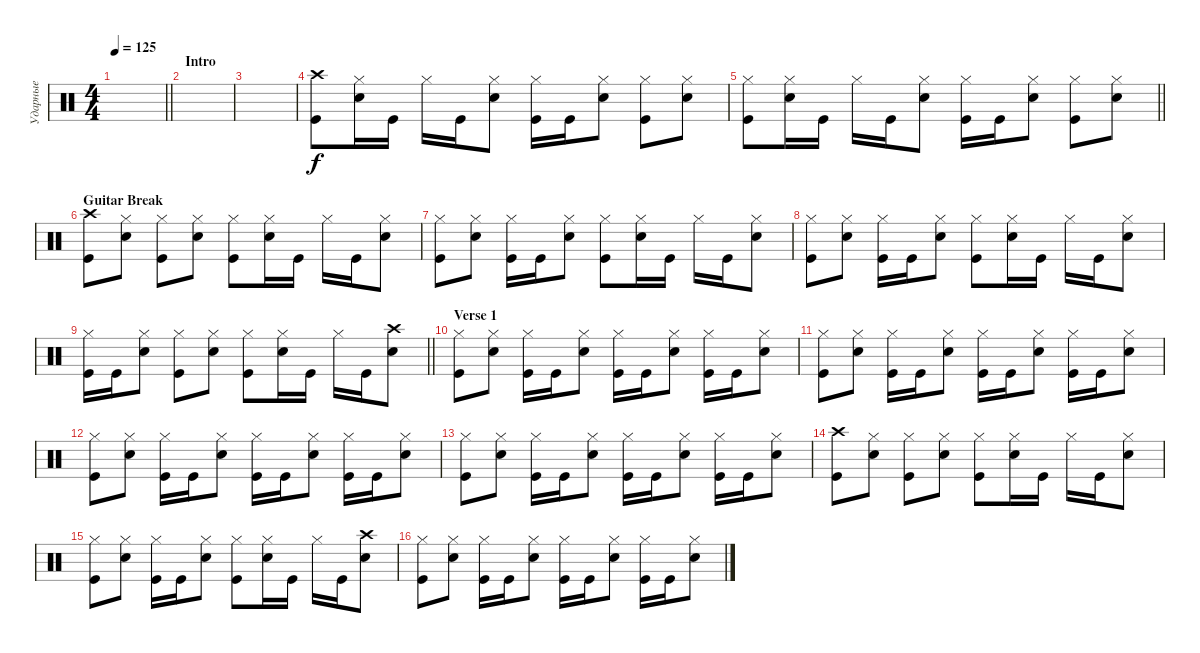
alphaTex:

\track ("Ударные" "Ударные") {instrument percussion}
\staff {score}
\articulation defaults
\ts (4 4)
\tempo 125
\clef neutral
\barLineRight lightlight
\ks aminor
|
\section ("" "Intro")
|
|
("Kick (hit)" "Crash high (hit)").8 ("Snare (hit) 2" "Hi-Hat (closed)").16 "Kick (hit)".16 "Hi-Hat (closed)".16 "Kick (hit)".16 ("Snare (hit) 2" "Hi-Hat (closed)").8 ("Kick (hit)" "Hi-Hat (closed)").16 "Kick (hit)".16 ("Snare (hit) 2" "Hi-Hat (closed)").8 ("Kick (hit)" "Hi-Hat (closed)").8 ("Snare (hit) 2" "Hi-Hat (closed)").8 |
\barLineRight lightlight
("Kick (hit)" "Hi-Hat (closed)").8 ("Snare (hit) 2" "Hi-Hat (closed)").16 "Kick (hit)".16 "Hi-Hat (closed)".16 "Kick (hit)".16 ("Snare (hit) 2" "Hi-Hat (closed)").8 ("Kick (hit)" "Hi-Hat (closed)").16 "Kick (hit)".16 ("Snare (hit) 2" "Hi-Hat (closed)").8 ("Kick (hit)" "Hi-Hat (closed)").8 ("Snare (hit) 2" "Hi-Hat (closed)").8 |
\section ("" "Guitar Break")
("Kick (hit)" "Crash high (hit)").8 ("Snare (hit) 2" "Hi-Hat (closed)").8 ("Kick (hit)" "Hi-Hat (closed)").8 ("Snare (hit) 2" "Hi-Hat (closed)").8 ("Kick (hit)" "Hi-Hat (closed)").8 ("Snare (hit) 2" "Hi-Hat (closed)").16 "Kick (hit)".16 "Hi-Hat (closed)".16 "Kick (hit)".16 ("Snare (hit) 2" "Hi-Hat (closed)").8 |
("Kick (hit)" "Hi-Hat (closed)").8 ("Snare (hit) 2" "Hi-Hat (closed)").8 ("Kick (hit)" "Hi-Hat (closed)").16 "Kick (hit)".16 ("Snare (hit) 2" "Hi-Hat (closed)").8 ("Kick (hit)" "Hi-Hat (closed)").8 ("Snare (hit) 2" "Hi-Hat (closed)").16 "Kick (hit)".16 "Hi-Hat (closed)".16 "Kick (hit)".16 ("Snare (hit) 2" "Hi-Hat (closed)").8 |
("Kick (hit)" "Hi-Hat (closed)").8 ("Snare (hit) 2" "Hi-Hat (closed)").8 ("Kick (hit)" "Hi-Hat (closed)").16 "Kick (hit)".16 ("Snare (hit) 2" "Hi-Hat (closed)").8 ("Kick (hit)" "Hi-Hat (closed)").8 ("Snare (hit) 2" "Hi-Hat (closed)").16 "Kick (hit)".16 "Hi-Hat (closed)".16 "Kick (hit)".16 ("Snare (hit) 2" "Hi-Hat (closed)").8 |
\barLineRight lightlight
("Kick (hit)" "Hi-Hat (closed)").16 "Kick (hit)".16 ("Snare (hit) 2" "Hi-Hat (closed)").8 ("Kick (hit)" "Hi-Hat (closed)").8 ("Snare (hit) 2" "Hi-Hat (closed)").8 ("Kick (hit)" "Hi-Hat (closed)").8 ("Snare (hit) 2" "Hi-Hat (closed)").16 "Kick (hit)".16 "Hi-Hat (closed)".16 "Kick (hit)".16 ("Snare (hit) 2" "Crash high (hit)").8 |
\section ("" "Verse 1")
("Kick (hit)" "Hi-Hat (closed)").8 ("Snare (hit) 2" "Hi-Hat (closed)").8 ("Kick (hit)" "Hi-Hat (closed)").16 "Kick (hit)".16 ("Snare (hit) 2" "Hi-Hat (closed)").8 ("Hi-Hat (closed)" "Kick (hit)").16 "Kick (hit)".16 ("Snare (hit) 2" "Hi-Hat (closed)").8 ("Kick (hit)" "Hi-Hat (closed)").16 "Kick (hit)".16 ("Snare (hit) 2" "Hi-Hat (closed)").8 |
("Kick (hit)" "Hi-Hat (closed)").8 ("Snare (hit) 2" "Hi-Hat (closed)").8 ("Kick (hit)" "Hi-Hat (closed)").16 "Kick (hit)".16 ("Snare (hit) 2" "Hi-Hat (closed)").8 ("Hi-Hat (closed)" "Kick (hit)").16 "Kick (hit)".16 ("Snare (hit) 2" "Hi-Hat (closed)").8 ("Kick (hit)" "Hi-Hat (closed)").16 "Kick (hit)".16 ("Snare (hit) 2" "Hi-Hat (closed)").8 |
("Kick (hit)" "Hi-Hat (closed)").8 ("Snare (hit) 2" "Hi-Hat (closed)").8 ("Kick (hit)" "Hi-Hat (closed)").16 "Kick (hit)".16 ("Snare (hit) 2" "Hi-Hat (closed)").8 ("Hi-Hat (closed)" "Kick (hit)").16 "Kick (hit)".16 ("Snare (hit) 2" "Hi-Hat (closed)").8 ("Kick (hit)" "Hi-Hat (closed)").16 "Kick (hit)".16 ("Snare (hit) 2" "Hi-Hat (closed)").8 |
("Kick (hit)" "Hi-Hat (closed)").8 ("Snare (hit) 2" "Hi-Hat (closed)").8 ("Kick (hit)" "Hi-Hat (closed)").16 "Kick (hit)".16 ("Snare (hit) 2" "Hi-Hat (closed)").8 ("Hi-Hat (closed)" "Kick (hit)").16 "Kick (hit)".16 ("Snare (hit) 2" "Hi-Hat (closed)").8 ("Kick (hit)" "Hi-Hat (closed)").16 "Kick (hit)".16 ("Snare (hit) 2" "Hi-Hat (closed)").8 |
("Kick (hit)" "Crash high (hit)").8 ("Snare (hit) 2" "Hi-Hat (closed)").8 ("Kick (hit)" "Hi-Hat (closed)").8 ("Snare (hit) 2" "Hi-Hat (closed)").8 ("Kick (hit)" "Hi-Hat (closed)").8 ("Snare (hit) 2" "Hi-Hat (closed)").16 "Kick (hit)".16 "Hi-Hat (closed)".16 "Kick (hit)".16 ("Snare (hit) 2" "Hi-Hat (closed)").8 |
("Kick (hit)" "Hi-Hat (closed)").8 ("Snare (hit) 2" "Hi-Hat (closed)").8 ("Kick (hit)" "Hi-Hat (closed)").16 "Kick (hit)".16 ("Snare (hit) 2" "Hi-Hat (closed)").8 ("Kick (hit)" "Hi-Hat (closed)").8 ("Snare (hit) 2" "Hi-Hat (closed)").16 "Kick (hit)".16 "Hi-Hat (closed)".16 "Kick (hit)".16 ("Snare (hit) 2" "Crash high (hit)").8 |
("Kick (hit)" "Hi-Hat (closed)").8 ("Snare (hit) 2" "Hi-Hat (closed)").8 ("Kick (hit)" "Hi-Hat (closed)").16 "Kick (hit)".16 ("Snare (hit) 2" "Hi-Hat (closed)").8 ("Hi-Hat (closed)" "Kick (hit)").16 "Kick (hit)".16 ("Snare (hit) 2" "Hi-Hat (closed)").8 ("Kick (hit)" "Hi-Hat (closed)").16 "Kick (hit)".16 ("Snare (hit) 2" "Hi-Hat (closed)").8
